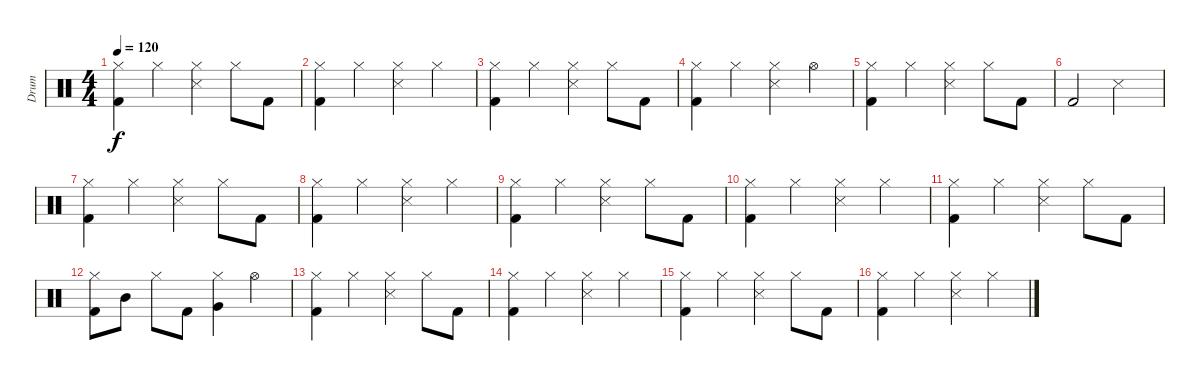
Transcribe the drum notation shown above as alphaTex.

\track ("Drum" "Drum") {instrument percussion}
\staff {score}
\articulation defaults
\ts (4 4)
\tempo 120
\clef neutral
\ks c
("Hi-Hat (closed)" "Kick (hit) 2").4{dy f} "Hi-Hat (closed)".4 ("Hi-Hat (closed)" "Snare (side stick) 3").4 "Hi-Hat (closed)".8 "Kick (hit) 2".8 |
("Hi-Hat (closed)" "Kick (hit) 2").4 "Hi-Hat (closed)".4 ("Hi-Hat (closed)" "Snare (side stick) 3").4 "Hi-Hat (closed)".4 |
("Hi-Hat (closed)" "Kick (hit) 2").4 "Hi-Hat (closed)".4 ("Hi-Hat (closed)" "Snare (side stick) 3").4 "Hi-Hat (closed)".8 "Kick (hit) 2".8 |
("Hi-Hat (closed)" "Kick (hit) 2").4 "Hi-Hat (closed)".4 ("Hi-Hat (closed)" "Snare (side stick) 3").4 "Hi-Hat (open)".4 |
("Hi-Hat (closed)" "Kick (hit) 2").4 "Hi-Hat (closed)".4 ("Hi-Hat (closed)" "Snare (side stick) 3").4 "Hi-Hat (closed)".8 "Kick (hit) 2".8 |
"Kick (hit) 2".2 "Snare (side stick) 3".2 |
("Hi-Hat (closed)" "Kick (hit) 2").4 "Hi-Hat (closed)".4 ("Hi-Hat (closed)" "Snare (side stick) 3").4 "Hi-Hat (closed)".8 "Kick (hit) 2".8 |
("Hi-Hat (closed)" "Kick (hit) 2").4 "Hi-Hat (closed)".4 ("Hi-Hat (closed)" "Snare (side stick) 3").4 "Hi-Hat (closed)".4 |
("Hi-Hat (closed)" "Kick (hit) 2").4 "Hi-Hat (closed)".4 ("Hi-Hat (closed)" "Snare (side stick) 3").4 "Hi-Hat (closed)".8 "Kick (hit) 2".8 |
("Hi-Hat (closed)" "Kick (hit) 2").4 "Hi-Hat (closed)".4 ("Hi-Hat (closed)" "Snare (side stick) 3").4 "Hi-Hat (closed)".4 |
("Hi-Hat (closed)" "Kick (hit) 2").4 "Hi-Hat (closed)".4 ("Hi-Hat (closed)" "Snare (side stick) 3").4 "Hi-Hat (closed)".8 "Kick (hit) 2".8 |
("Hi-Hat (closed)" "Kick (hit) 2").8 "Mid Tom (hit)".8 "Hi-Hat (closed)".8 "Kick (hit) 2".8 ("Hi-Hat (closed)" "Very Low Tom (hit)").4 "Hi-Hat (open)".4 |
("Hi-Hat (closed)" "Kick (hit) 2").4 "Hi-Hat (closed)".4 ("Hi-Hat (closed)" "Snare (side stick) 3").4 "Hi-Hat (closed)".8 "Kick (hit) 2".8 |
("Hi-Hat (closed)" "Kick (hit) 2").4 "Hi-Hat (closed)".4 ("Hi-Hat (closed)" "Snare (side stick) 3").4 "Hi-Hat (closed)".4 |
("Hi-Hat (closed)" "Kick (hit) 2").4 "Hi-Hat (closed)".4 ("Hi-Hat (closed)" "Snare (side stick) 3").4 "Hi-Hat (closed)".8 "Kick (hit) 2".8 |
("Hi-Hat (closed)" "Kick (hit) 2").4 "Hi-Hat (closed)".4 ("Hi-Hat (closed)" "Snare (side stick) 3").4 "Hi-Hat (closed)".4
